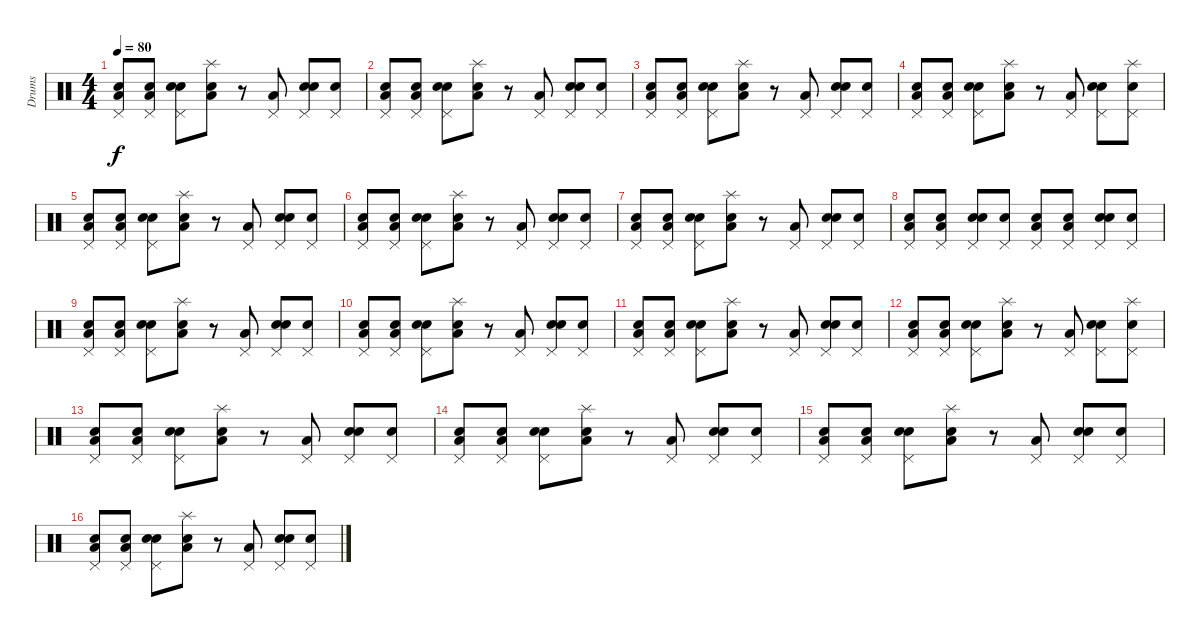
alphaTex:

\track ("Drums" "Drums") {instrument percussion}
\staff {score}
\articulation defaults
\ts (4 4)
\tempo 80
\clef neutral
\ks c
("Snare (hit)" "Low Floor Tom (hit)" "Pedal Hi-Hat (hit)").8{dy f} ("Snare (hit)" "Low Floor Tom (hit)" "Pedal Hi-Hat (hit)").8 ("Snare (hit)" "Electric Snare (hit)" "Pedal Hi-Hat (hit)").8 ("Snare (hit)" "Low Floor Tom (hit)" "Splash (hit)").8 r.8 ("Low Floor Tom (hit)" "Pedal Hi-Hat (hit)").8 ("Snare (hit)" "Electric Snare (hit)" "Pedal Hi-Hat (hit)").8 ("Snare (hit)" "Pedal Hi-Hat (hit)").8 |
("Snare (hit)" "Low Floor Tom (hit)" "Pedal Hi-Hat (hit)").8 ("Snare (hit)" "Low Floor Tom (hit)" "Pedal Hi-Hat (hit)").8 ("Snare (hit)" "Electric Snare (hit)" "Pedal Hi-Hat (hit)").8 ("Snare (hit)" "Low Floor Tom (hit)" "Splash (hit)").8 r.8 ("Low Floor Tom (hit)" "Pedal Hi-Hat (hit)").8 ("Snare (hit)" "Electric Snare (hit)" "Pedal Hi-Hat (hit)").8 ("Snare (hit)" "Pedal Hi-Hat (hit)").8 |
("Snare (hit)" "Low Floor Tom (hit)" "Pedal Hi-Hat (hit)").8 ("Snare (hit)" "Low Floor Tom (hit)" "Pedal Hi-Hat (hit)").8 ("Snare (hit)" "Electric Snare (hit)" "Pedal Hi-Hat (hit)").8 ("Snare (hit)" "Low Floor Tom (hit)" "Splash (hit)").8 r.8 ("Low Floor Tom (hit)" "Pedal Hi-Hat (hit)").8 ("Snare (hit)" "Electric Snare (hit)" "Pedal Hi-Hat (hit)").8 ("Snare (hit)" "Pedal Hi-Hat (hit)").8 |
("Snare (hit)" "Low Floor Tom (hit)" "Pedal Hi-Hat (hit)").8 ("Snare (hit)" "Low Floor Tom (hit)" "Pedal Hi-Hat (hit)").8 ("Snare (hit)" "Electric Snare (hit)" "Pedal Hi-Hat (hit)").8 ("Snare (hit)" "Low Floor Tom (hit)" "Splash (hit)").8 r.8 ("Low Floor Tom (hit)" "Pedal Hi-Hat (hit)").8 ("Snare (hit)" "Electric Snare (hit)" "Pedal Hi-Hat (hit)").8 ("Snare (hit)" "Pedal Hi-Hat (hit)" "Splash (hit)").8 |
("Snare (hit)" "Low Floor Tom (hit)" "Pedal Hi-Hat (hit)").8 ("Snare (hit)" "Low Floor Tom (hit)" "Pedal Hi-Hat (hit)").8 ("Snare (hit)" "Electric Snare (hit)" "Pedal Hi-Hat (hit)").8 ("Snare (hit)" "Low Floor Tom (hit)" "Splash (hit)").8 r.8 ("Low Floor Tom (hit)" "Pedal Hi-Hat (hit)").8 ("Snare (hit)" "Electric Snare (hit)" "Pedal Hi-Hat (hit)").8 ("Snare (hit)" "Pedal Hi-Hat (hit)").8 |
("Snare (hit)" "Low Floor Tom (hit)" "Pedal Hi-Hat (hit)").8 ("Snare (hit)" "Low Floor Tom (hit)" "Pedal Hi-Hat (hit)").8 ("Snare (hit)" "Electric Snare (hit)" "Pedal Hi-Hat (hit)").8 ("Snare (hit)" "Low Floor Tom (hit)" "Splash (hit)").8 r.8 ("Low Floor Tom (hit)" "Pedal Hi-Hat (hit)").8 ("Snare (hit)" "Electric Snare (hit)" "Pedal Hi-Hat (hit)").8 ("Snare (hit)" "Pedal Hi-Hat (hit)").8 |
("Snare (hit)" "Low Floor Tom (hit)" "Pedal Hi-Hat (hit)").8 ("Snare (hit)" "Low Floor Tom (hit)" "Pedal Hi-Hat (hit)").8 ("Snare (hit)" "Electric Snare (hit)" "Pedal Hi-Hat (hit)").8 ("Snare (hit)" "Low Floor Tom (hit)" "Splash (hit)").8 r.8 ("Low Floor Tom (hit)" "Pedal Hi-Hat (hit)").8 ("Snare (hit)" "Electric Snare (hit)" "Pedal Hi-Hat (hit)").8 ("Snare (hit)" "Pedal Hi-Hat (hit)").8 |
("Snare (hit)" "Low Floor Tom (hit)" "Pedal Hi-Hat (hit)").8 ("Snare (hit)" "Low Floor Tom (hit)" "Pedal Hi-Hat (hit)").8 ("Snare (hit)" "Electric Snare (hit)" "Pedal Hi-Hat (hit)").8 ("Snare (hit)" "Pedal Hi-Hat (hit)").8 ("Snare (hit)" "Low Floor Tom (hit)" "Pedal Hi-Hat (hit)").8 ("Snare (hit)" "Low Floor Tom (hit)" "Pedal Hi-Hat (hit)").8 ("Snare (hit)" "Electric Snare (hit)" "Pedal Hi-Hat (hit)").8 ("Snare (hit)" "Pedal Hi-Hat (hit)").8 |
("Snare (hit)" "Low Floor Tom (hit)" "Pedal Hi-Hat (hit)").8 ("Snare (hit)" "Low Floor Tom (hit)" "Pedal Hi-Hat (hit)").8 ("Snare (hit)" "Electric Snare (hit)" "Pedal Hi-Hat (hit)").8 ("Snare (hit)" "Low Floor Tom (hit)" "Splash (hit)").8 r.8 ("Low Floor Tom (hit)" "Pedal Hi-Hat (hit)").8 ("Snare (hit)" "Electric Snare (hit)" "Pedal Hi-Hat (hit)").8 ("Snare (hit)" "Pedal Hi-Hat (hit)").8 |
("Snare (hit)" "Low Floor Tom (hit)" "Pedal Hi-Hat (hit)").8 ("Snare (hit)" "Low Floor Tom (hit)" "Pedal Hi-Hat (hit)").8 ("Snare (hit)" "Electric Snare (hit)" "Pedal Hi-Hat (hit)").8 ("Snare (hit)" "Low Floor Tom (hit)" "Splash (hit)").8 r.8 ("Low Floor Tom (hit)" "Pedal Hi-Hat (hit)").8 ("Snare (hit)" "Electric Snare (hit)" "Pedal Hi-Hat (hit)").8 ("Snare (hit)" "Pedal Hi-Hat (hit)").8 |
("Snare (hit)" "Low Floor Tom (hit)" "Pedal Hi-Hat (hit)").8 ("Snare (hit)" "Low Floor Tom (hit)" "Pedal Hi-Hat (hit)").8 ("Snare (hit)" "Electric Snare (hit)" "Pedal Hi-Hat (hit)").8 ("Snare (hit)" "Low Floor Tom (hit)" "Splash (hit)").8 r.8 ("Low Floor Tom (hit)" "Pedal Hi-Hat (hit)").8 ("Snare (hit)" "Electric Snare (hit)" "Pedal Hi-Hat (hit)").8 ("Snare (hit)" "Pedal Hi-Hat (hit)").8 |
("Snare (hit)" "Low Floor Tom (hit)" "Pedal Hi-Hat (hit)").8 ("Snare (hit)" "Low Floor Tom (hit)" "Pedal Hi-Hat (hit)").8 ("Snare (hit)" "Electric Snare (hit)" "Pedal Hi-Hat (hit)").8 ("Snare (hit)" "Low Floor Tom (hit)" "Splash (hit)").8 r.8 ("Low Floor Tom (hit)" "Pedal Hi-Hat (hit)").8 ("Snare (hit)" "Electric Snare (hit)" "Pedal Hi-Hat (hit)").8 ("Snare (hit)" "Pedal Hi-Hat (hit)" "Splash (hit)").8 |
("Snare (hit)" "Low Floor Tom (hit)" "Pedal Hi-Hat (hit)").8 ("Snare (hit)" "Low Floor Tom (hit)" "Pedal Hi-Hat (hit)").8 ("Snare (hit)" "Electric Snare (hit)" "Pedal Hi-Hat (hit)").8 ("Snare (hit)" "Low Floor Tom (hit)" "Splash (hit)").8 r.8 ("Low Floor Tom (hit)" "Pedal Hi-Hat (hit)").8 ("Snare (hit)" "Electric Snare (hit)" "Pedal Hi-Hat (hit)").8 ("Snare (hit)" "Pedal Hi-Hat (hit)").8 |
("Snare (hit)" "Low Floor Tom (hit)" "Pedal Hi-Hat (hit)").8 ("Snare (hit)" "Low Floor Tom (hit)" "Pedal Hi-Hat (hit)").8 ("Snare (hit)" "Electric Snare (hit)" "Pedal Hi-Hat (hit)").8 ("Snare (hit)" "Low Floor Tom (hit)" "Splash (hit)").8 r.8 ("Low Floor Tom (hit)" "Pedal Hi-Hat (hit)").8 ("Snare (hit)" "Electric Snare (hit)" "Pedal Hi-Hat (hit)").8 ("Snare (hit)" "Pedal Hi-Hat (hit)").8 |
("Snare (hit)" "Low Floor Tom (hit)" "Pedal Hi-Hat (hit)").8 ("Snare (hit)" "Low Floor Tom (hit)" "Pedal Hi-Hat (hit)").8 ("Snare (hit)" "Electric Snare (hit)" "Pedal Hi-Hat (hit)").8 ("Snare (hit)" "Low Floor Tom (hit)" "Splash (hit)").8 r.8 ("Low Floor Tom (hit)" "Pedal Hi-Hat (hit)").8 ("Snare (hit)" "Electric Snare (hit)" "Pedal Hi-Hat (hit)").8 ("Snare (hit)" "Pedal Hi-Hat (hit)").8 |
("Snare (hit)" "Low Floor Tom (hit)" "Pedal Hi-Hat (hit)").8 ("Snare (hit)" "Low Floor Tom (hit)" "Pedal Hi-Hat (hit)").8 ("Snare (hit)" "Electric Snare (hit)" "Pedal Hi-Hat (hit)").8 ("Snare (hit)" "Low Floor Tom (hit)" "Splash (hit)").8 r.8 ("Low Floor Tom (hit)" "Pedal Hi-Hat (hit)").8 ("Snare (hit)" "Electric Snare (hit)" "Pedal Hi-Hat (hit)").8 ("Snare (hit)" "Pedal Hi-Hat (hit)").8
